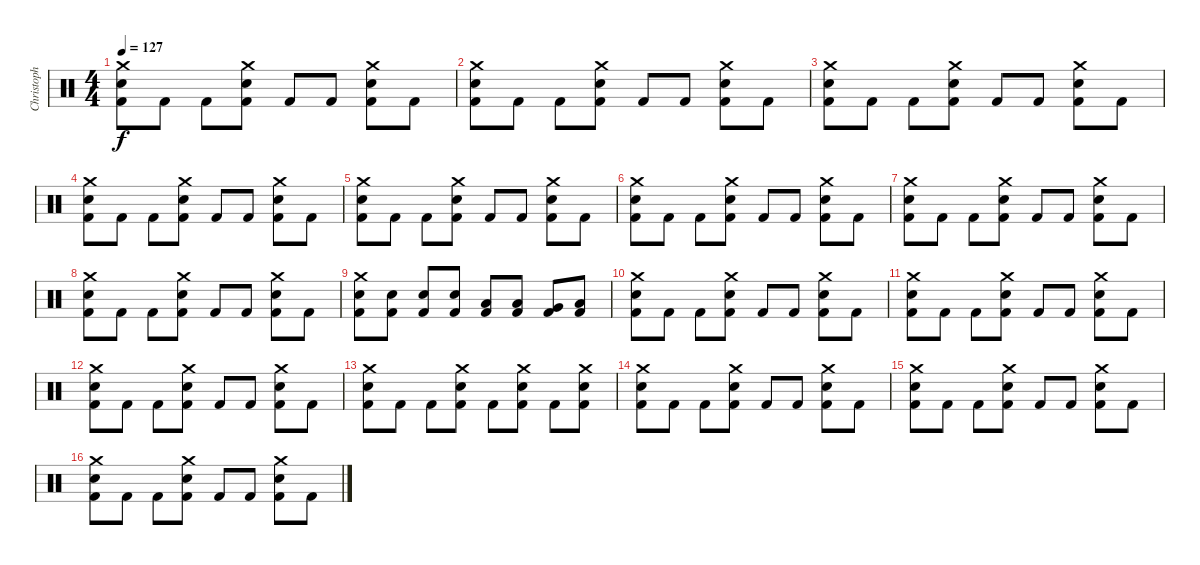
\track ("Christoph Schneider - Drums" "Christoph ") {instrument percussion}
\staff {score}
\articulation defaults
\ts (4 4)
\tempo 127
\clef neutral
\ks c
("Crash medium (hit)" "Electric Snare (hit)" "Kick (hit) 2").8{dy f} "Kick (hit) 2".8 "Kick (hit) 2".8 ("Crash medium (hit)" "Electric Snare (hit)" "Kick (hit) 2").8 "Kick (hit) 2".8 "Kick (hit) 2".8 ("Crash medium (hit)" "Electric Snare (hit)" "Kick (hit) 2").8 "Kick (hit) 2".8 |
("Crash medium (hit)" "Electric Snare (hit)" "Kick (hit) 2").8 "Kick (hit) 2".8 "Kick (hit) 2".8 ("Crash medium (hit)" "Electric Snare (hit)" "Kick (hit) 2").8 "Kick (hit) 2".8 "Kick (hit) 2".8 ("Crash medium (hit)" "Electric Snare (hit)" "Kick (hit) 2").8 "Kick (hit) 2".8 |
("Crash medium (hit)" "Electric Snare (hit)" "Kick (hit) 2").8 "Kick (hit) 2".8 "Kick (hit) 2".8 ("Crash medium (hit)" "Electric Snare (hit)" "Kick (hit) 2").8 "Kick (hit) 2".8 "Kick (hit) 2".8 ("Crash medium (hit)" "Electric Snare (hit)" "Kick (hit) 2").8 "Kick (hit) 2".8 |
("Crash medium (hit)" "Electric Snare (hit)" "Kick (hit) 2").8 "Kick (hit) 2".8 "Kick (hit) 2".8 ("Crash medium (hit)" "Electric Snare (hit)" "Kick (hit) 2").8 "Kick (hit) 2".8 "Kick (hit) 2".8 ("Crash medium (hit)" "Electric Snare (hit)" "Kick (hit) 2").8 "Kick (hit) 2".8 |
("Crash medium (hit)" "Electric Snare (hit)" "Kick (hit) 2").8 "Kick (hit) 2".8 "Kick (hit) 2".8 ("Crash medium (hit)" "Electric Snare (hit)" "Kick (hit) 2").8 "Kick (hit) 2".8 "Kick (hit) 2".8 ("Crash medium (hit)" "Electric Snare (hit)" "Kick (hit) 2").8 "Kick (hit) 2".8 |
("Crash medium (hit)" "Electric Snare (hit)" "Kick (hit) 2").8 "Kick (hit) 2".8 "Kick (hit) 2".8 ("Crash medium (hit)" "Electric Snare (hit)" "Kick (hit) 2").8 "Kick (hit) 2".8 "Kick (hit) 2".8 ("Crash medium (hit)" "Electric Snare (hit)" "Kick (hit) 2").8 "Kick (hit) 2".8 |
("Crash medium (hit)" "Electric Snare (hit)" "Kick (hit) 2").8 "Kick (hit) 2".8 "Kick (hit) 2".8 ("Crash medium (hit)" "Electric Snare (hit)" "Kick (hit) 2").8 "Kick (hit) 2".8 "Kick (hit) 2".8 ("Crash medium (hit)" "Electric Snare (hit)" "Kick (hit) 2").8 "Kick (hit) 2".8 |
("Crash medium (hit)" "Electric Snare (hit)" "Kick (hit) 2").8 "Kick (hit) 2".8 "Kick (hit) 2".8 ("Crash medium (hit)" "Electric Snare (hit)" "Kick (hit) 2").8 "Kick (hit) 2".8 "Kick (hit) 2".8 ("Crash medium (hit)" "Electric Snare (hit)" "Kick (hit) 2").8 "Kick (hit) 2".8 |
("Crash medium (hit)" "Electric Snare (hit)" "Kick (hit) 2").8 ("Electric Snare (hit)" "Kick (hit) 2").8 ("Electric Snare (hit)" "Kick (hit) 2").8 ("Electric Snare (hit)" "Kick (hit) 2").8 ("Low Tom (hit)" "Kick (hit) 2").8 ("Low Tom (hit)" "Kick (hit) 2").8 ("Very Low Tom (hit)" "Kick (hit) 2").8 ("Low Floor Tom (hit)" "Kick (hit) 2").8 |
("Crash medium (hit)" "Electric Snare (hit)" "Kick (hit) 2").8 "Kick (hit) 2".8 "Kick (hit) 2".8 ("Crash medium (hit)" "Electric Snare (hit)" "Kick (hit) 2").8 "Kick (hit) 2".8 "Kick (hit) 2".8 ("Crash medium (hit)" "Electric Snare (hit)" "Kick (hit) 2").8 "Kick (hit) 2".8 |
("Crash medium (hit)" "Electric Snare (hit)" "Kick (hit) 2").8 "Kick (hit) 2".8 "Kick (hit) 2".8 ("Crash medium (hit)" "Electric Snare (hit)" "Kick (hit) 2").8 "Kick (hit) 2".8 "Kick (hit) 2".8 ("Crash medium (hit)" "Electric Snare (hit)" "Kick (hit) 2").8 "Kick (hit) 2".8 |
("Crash medium (hit)" "Electric Snare (hit)" "Kick (hit) 2").8 "Kick (hit) 2".8 "Kick (hit) 2".8 ("Crash medium (hit)" "Electric Snare (hit)" "Kick (hit) 2").8 "Kick (hit) 2".8 "Kick (hit) 2".8 ("Crash medium (hit)" "Electric Snare (hit)" "Kick (hit) 2").8 "Kick (hit) 2".8 |
("Crash medium (hit)" "Electric Snare (hit)" "Kick (hit) 2").8 "Kick (hit) 2".8 "Kick (hit) 2".8 ("Crash medium (hit)" "Electric Snare (hit)" "Kick (hit) 2").8 "Kick (hit) 2".8 ("Crash medium (hit)" "Electric Snare (hit)" "Kick (hit) 2").8 "Kick (hit) 2".8 ("Crash medium (hit)" "Electric Snare (hit)" "Kick (hit) 2").8 |
("Crash medium (hit)" "Electric Snare (hit)" "Kick (hit) 2").8 "Kick (hit) 2".8 "Kick (hit) 2".8 ("Crash medium (hit)" "Electric Snare (hit)" "Kick (hit) 2").8 "Kick (hit) 2".8 "Kick (hit) 2".8 ("Crash medium (hit)" "Electric Snare (hit)" "Kick (hit) 2").8 "Kick (hit) 2".8 |
("Crash medium (hit)" "Electric Snare (hit)" "Kick (hit) 2").8 "Kick (hit) 2".8 "Kick (hit) 2".8 ("Crash medium (hit)" "Electric Snare (hit)" "Kick (hit) 2").8 "Kick (hit) 2".8 "Kick (hit) 2".8 ("Crash medium (hit)" "Electric Snare (hit)" "Kick (hit) 2").8 "Kick (hit) 2".8 |
("Crash medium (hit)" "Electric Snare (hit)" "Kick (hit) 2").8 "Kick (hit) 2".8 "Kick (hit) 2".8 ("Crash medium (hit)" "Electric Snare (hit)" "Kick (hit) 2").8 "Kick (hit) 2".8 "Kick (hit) 2".8 ("Crash medium (hit)" "Electric Snare (hit)" "Kick (hit) 2").8 "Kick (hit) 2".8
